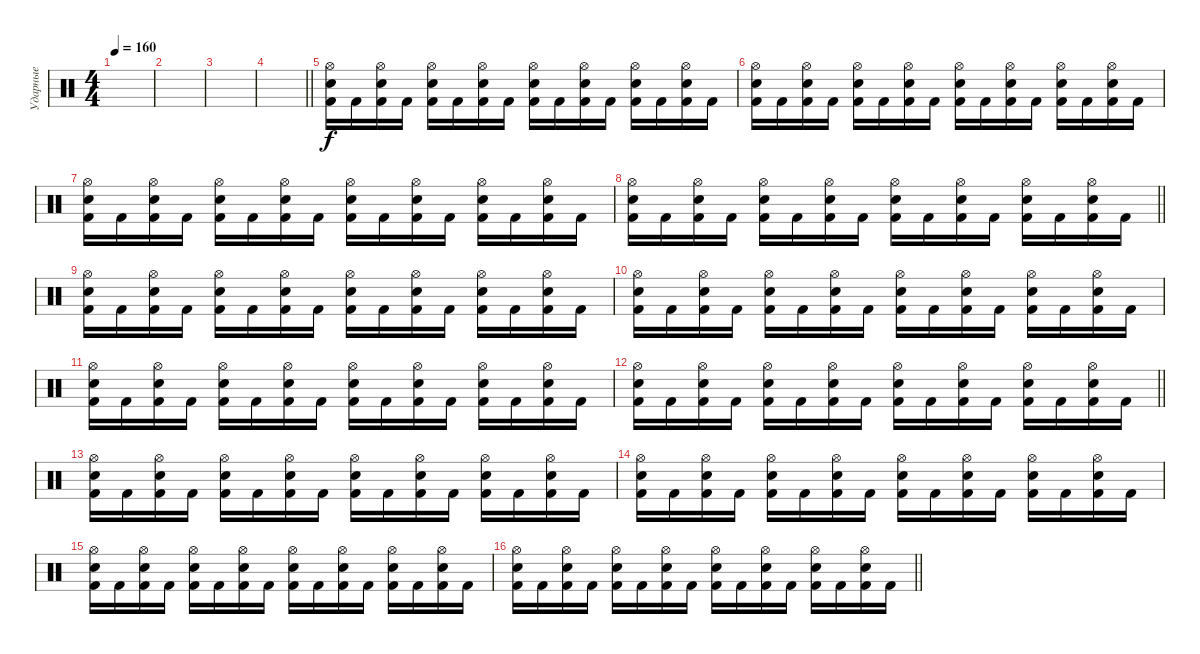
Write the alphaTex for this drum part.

\track ("Ударные" "Ударные") {instrument percussion}
\staff {score}
\articulation defaults
\ts (4 4)
\tempo 160
\clef neutral
\ks c
|
|
|
\barLineRight lightlight
|
("Hi-Hat (open)" "Snare (hit) 2" "Kick (hit) 2").16 "Kick (hit) 2".16 ("Hi-Hat (open)" "Snare (hit) 2" "Kick (hit) 2").16 "Kick (hit) 2".16 ("Hi-Hat (open)" "Snare (hit) 2" "Kick (hit) 2").16 "Kick (hit) 2".16 ("Hi-Hat (open)" "Snare (hit) 2" "Kick (hit) 2").16 "Kick (hit) 2".16 ("Hi-Hat (open)" "Snare (hit) 2" "Kick (hit) 2").16 "Kick (hit) 2".16 ("Hi-Hat (open)" "Snare (hit) 2" "Kick (hit) 2").16 "Kick (hit) 2".16 ("Hi-Hat (open)" "Snare (hit) 2" "Kick (hit) 2").16 "Kick (hit) 2".16 ("Hi-Hat (open)" "Snare (hit) 2" "Kick (hit) 2").16 "Kick (hit) 2".16 |
("Hi-Hat (open)" "Snare (hit) 2" "Kick (hit) 2").16 "Kick (hit) 2".16 ("Hi-Hat (open)" "Snare (hit) 2" "Kick (hit) 2").16 "Kick (hit) 2".16 ("Hi-Hat (open)" "Snare (hit) 2" "Kick (hit) 2").16 "Kick (hit) 2".16 ("Hi-Hat (open)" "Snare (hit) 2" "Kick (hit) 2").16 "Kick (hit) 2".16 ("Hi-Hat (open)" "Snare (hit) 2" "Kick (hit) 2").16 "Kick (hit) 2".16 ("Hi-Hat (open)" "Snare (hit) 2" "Kick (hit) 2").16 "Kick (hit) 2".16 ("Hi-Hat (open)" "Snare (hit) 2" "Kick (hit) 2").16 "Kick (hit) 2".16 ("Hi-Hat (open)" "Snare (hit) 2" "Kick (hit) 2").16 "Kick (hit) 2".16 |
("Hi-Hat (open)" "Snare (hit) 2" "Kick (hit) 2").16 "Kick (hit) 2".16 ("Hi-Hat (open)" "Snare (hit) 2" "Kick (hit) 2").16 "Kick (hit) 2".16 ("Hi-Hat (open)" "Snare (hit) 2" "Kick (hit) 2").16 "Kick (hit) 2".16 ("Hi-Hat (open)" "Snare (hit) 2" "Kick (hit) 2").16 "Kick (hit) 2".16 ("Hi-Hat (open)" "Snare (hit) 2" "Kick (hit) 2").16 "Kick (hit) 2".16 ("Hi-Hat (open)" "Snare (hit) 2" "Kick (hit) 2").16 "Kick (hit) 2".16 ("Hi-Hat (open)" "Snare (hit) 2" "Kick (hit) 2").16 "Kick (hit) 2".16 ("Hi-Hat (open)" "Snare (hit) 2" "Kick (hit) 2").16 "Kick (hit) 2".16 |
\barLineRight lightlight
("Hi-Hat (open)" "Snare (hit) 2" "Kick (hit) 2").16 "Kick (hit) 2".16 ("Hi-Hat (open)" "Snare (hit) 2" "Kick (hit) 2").16 "Kick (hit) 2".16 ("Hi-Hat (open)" "Snare (hit) 2" "Kick (hit) 2").16 "Kick (hit) 2".16 ("Hi-Hat (open)" "Snare (hit) 2" "Kick (hit) 2").16 "Kick (hit) 2".16 ("Hi-Hat (open)" "Snare (hit) 2" "Kick (hit) 2").16 "Kick (hit) 2".16 ("Hi-Hat (open)" "Snare (hit) 2" "Kick (hit) 2").16 "Kick (hit) 2".16 ("Hi-Hat (open)" "Snare (hit) 2" "Kick (hit) 2").16 "Kick (hit) 2".16 ("Hi-Hat (open)" "Snare (hit) 2" "Kick (hit) 2").16 "Kick (hit) 2".16 |
("Hi-Hat (open)" "Snare (hit) 2" "Kick (hit) 2").16 "Kick (hit) 2".16 ("Hi-Hat (open)" "Snare (hit) 2" "Kick (hit) 2").16 "Kick (hit) 2".16 ("Hi-Hat (open)" "Snare (hit) 2" "Kick (hit) 2").16 "Kick (hit) 2".16 ("Hi-Hat (open)" "Snare (hit) 2" "Kick (hit) 2").16 "Kick (hit) 2".16 ("Hi-Hat (open)" "Snare (hit) 2" "Kick (hit) 2").16 "Kick (hit) 2".16 ("Hi-Hat (open)" "Snare (hit) 2" "Kick (hit) 2").16 "Kick (hit) 2".16 ("Hi-Hat (open)" "Snare (hit) 2" "Kick (hit) 2").16 "Kick (hit) 2".16 ("Hi-Hat (open)" "Snare (hit) 2" "Kick (hit) 2").16 "Kick (hit) 2".16 |
("Hi-Hat (open)" "Snare (hit) 2" "Kick (hit) 2").16 "Kick (hit) 2".16 ("Hi-Hat (open)" "Snare (hit) 2" "Kick (hit) 2").16 "Kick (hit) 2".16 ("Hi-Hat (open)" "Snare (hit) 2" "Kick (hit) 2").16 "Kick (hit) 2".16 ("Hi-Hat (open)" "Snare (hit) 2" "Kick (hit) 2").16 "Kick (hit) 2".16 ("Hi-Hat (open)" "Snare (hit) 2" "Kick (hit) 2").16 "Kick (hit) 2".16 ("Hi-Hat (open)" "Snare (hit) 2" "Kick (hit) 2").16 "Kick (hit) 2".16 ("Hi-Hat (open)" "Snare (hit) 2" "Kick (hit) 2").16 "Kick (hit) 2".16 ("Hi-Hat (open)" "Snare (hit) 2" "Kick (hit) 2").16 "Kick (hit) 2".16 |
("Hi-Hat (open)" "Snare (hit) 2" "Kick (hit) 2").16 "Kick (hit) 2".16 ("Hi-Hat (open)" "Snare (hit) 2" "Kick (hit) 2").16 "Kick (hit) 2".16 ("Hi-Hat (open)" "Snare (hit) 2" "Kick (hit) 2").16 "Kick (hit) 2".16 ("Hi-Hat (open)" "Snare (hit) 2" "Kick (hit) 2").16 "Kick (hit) 2".16 ("Hi-Hat (open)" "Snare (hit) 2" "Kick (hit) 2").16 "Kick (hit) 2".16 ("Hi-Hat (open)" "Snare (hit) 2" "Kick (hit) 2").16 "Kick (hit) 2".16 ("Hi-Hat (open)" "Snare (hit) 2" "Kick (hit) 2").16 "Kick (hit) 2".16 ("Hi-Hat (open)" "Snare (hit) 2" "Kick (hit) 2").16 "Kick (hit) 2".16 |
\barLineRight lightlight
("Hi-Hat (open)" "Snare (hit) 2" "Kick (hit) 2").16 "Kick (hit) 2".16 ("Hi-Hat (open)" "Snare (hit) 2" "Kick (hit) 2").16 "Kick (hit) 2".16 ("Hi-Hat (open)" "Snare (hit) 2" "Kick (hit) 2").16 "Kick (hit) 2".16 ("Hi-Hat (open)" "Snare (hit) 2" "Kick (hit) 2").16 "Kick (hit) 2".16 ("Hi-Hat (open)" "Snare (hit) 2" "Kick (hit) 2").16 "Kick (hit) 2".16 ("Hi-Hat (open)" "Snare (hit) 2" "Kick (hit) 2").16 "Kick (hit) 2".16 ("Hi-Hat (open)" "Snare (hit) 2" "Kick (hit) 2").16 "Kick (hit) 2".16 ("Hi-Hat (open)" "Snare (hit) 2" "Kick (hit) 2").16 "Kick (hit) 2".16 |
("Hi-Hat (open)" "Snare (hit) 2" "Kick (hit) 2").16 "Kick (hit) 2".16 ("Hi-Hat (open)" "Snare (hit) 2" "Kick (hit) 2").16 "Kick (hit) 2".16 ("Hi-Hat (open)" "Snare (hit) 2" "Kick (hit) 2").16 "Kick (hit) 2".16 ("Hi-Hat (open)" "Snare (hit) 2" "Kick (hit) 2").16 "Kick (hit) 2".16 ("Hi-Hat (open)" "Snare (hit) 2" "Kick (hit) 2").16 "Kick (hit) 2".16 ("Hi-Hat (open)" "Snare (hit) 2" "Kick (hit) 2").16 "Kick (hit) 2".16 ("Hi-Hat (open)" "Snare (hit) 2" "Kick (hit) 2").16 "Kick (hit) 2".16 ("Hi-Hat (open)" "Snare (hit) 2" "Kick (hit) 2").16 "Kick (hit) 2".16 |
("Hi-Hat (open)" "Snare (hit) 2" "Kick (hit) 2").16 "Kick (hit) 2".16 ("Hi-Hat (open)" "Snare (hit) 2" "Kick (hit) 2").16 "Kick (hit) 2".16 ("Hi-Hat (open)" "Snare (hit) 2" "Kick (hit) 2").16 "Kick (hit) 2".16 ("Hi-Hat (open)" "Snare (hit) 2" "Kick (hit) 2").16 "Kick (hit) 2".16 ("Hi-Hat (open)" "Snare (hit) 2" "Kick (hit) 2").16 "Kick (hit) 2".16 ("Hi-Hat (open)" "Snare (hit) 2" "Kick (hit) 2").16 "Kick (hit) 2".16 ("Hi-Hat (open)" "Snare (hit) 2" "Kick (hit) 2").16 "Kick (hit) 2".16 ("Hi-Hat (open)" "Snare (hit) 2" "Kick (hit) 2").16 "Kick (hit) 2".16 |
("Hi-Hat (open)" "Snare (hit) 2" "Kick (hit) 2").16 "Kick (hit) 2".16 ("Hi-Hat (open)" "Snare (hit) 2" "Kick (hit) 2").16 "Kick (hit) 2".16 ("Hi-Hat (open)" "Snare (hit) 2" "Kick (hit) 2").16 "Kick (hit) 2".16 ("Hi-Hat (open)" "Snare (hit) 2" "Kick (hit) 2").16 "Kick (hit) 2".16 ("Hi-Hat (open)" "Snare (hit) 2" "Kick (hit) 2").16 "Kick (hit) 2".16 ("Hi-Hat (open)" "Snare (hit) 2" "Kick (hit) 2").16 "Kick (hit) 2".16 ("Hi-Hat (open)" "Snare (hit) 2" "Kick (hit) 2").16 "Kick (hit) 2".16 ("Hi-Hat (open)" "Snare (hit) 2" "Kick (hit) 2").16 "Kick (hit) 2".16 |
\barLineRight lightlight
("Hi-Hat (open)" "Snare (hit) 2" "Kick (hit) 2").16 "Kick (hit) 2".16 ("Hi-Hat (open)" "Snare (hit) 2" "Kick (hit) 2").16 "Kick (hit) 2".16 ("Hi-Hat (open)" "Snare (hit) 2" "Kick (hit) 2").16 "Kick (hit) 2".16 ("Hi-Hat (open)" "Snare (hit) 2" "Kick (hit) 2").16 "Kick (hit) 2".16 ("Hi-Hat (open)" "Snare (hit) 2" "Kick (hit) 2").16 "Kick (hit) 2".16 ("Hi-Hat (open)" "Snare (hit) 2" "Kick (hit) 2").16 "Kick (hit) 2".16 ("Hi-Hat (open)" "Snare (hit) 2" "Kick (hit) 2").16 "Kick (hit) 2".16 ("Hi-Hat (open)" "Snare (hit) 2" "Kick (hit) 2").16 "Kick (hit) 2".16
